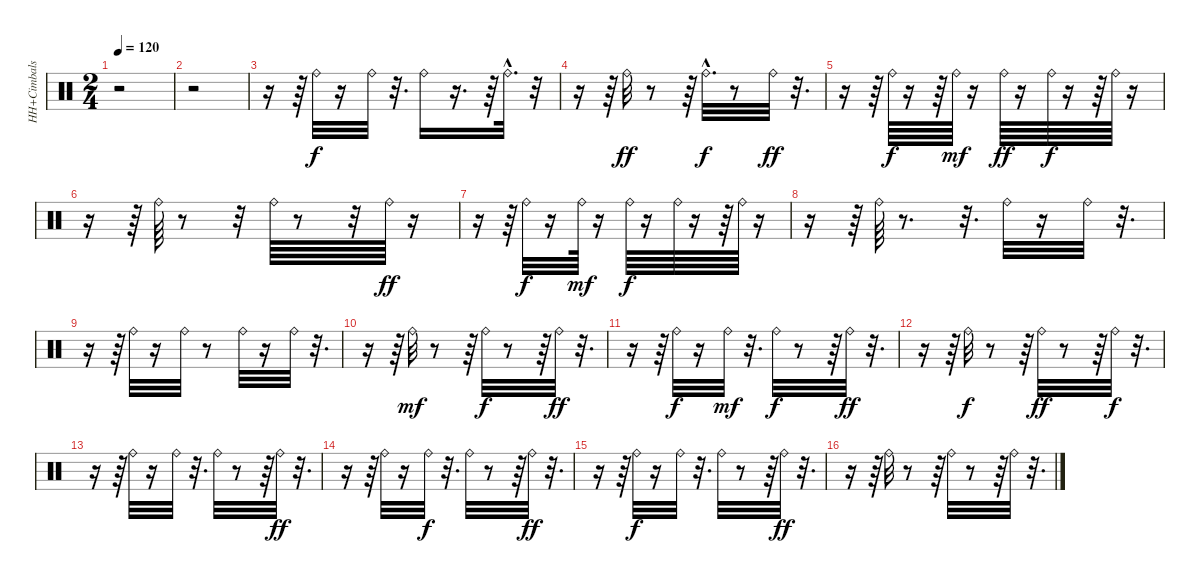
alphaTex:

\track ("HH+Cimbals" "HH+Cimbals") {instrument percussion}
\staff {score}
\articulation defaults
\ts (2 4)
\tempo 120
\clef neutral
\ks c
r.2{dy fff} |
r.2 |
r.16 r.64 "Ride (bell)".32{dy f} r.16 "Ride (bell)".32 r.32{d} "Ride (bell)".16 r.16{d} r.64 "Ride (bell)"{hac}.32{d} r.32 |
r.16 r.64 "Ride (bell)".32{dy ff} r.8 r.64 "Ride (bell)"{hac}.32{d dy f} r.8 "Ride (bell)".32{dy ff} r.32{d} |
r.16 r.64 "Ride (bell)".64{dy f} r.16 r.64 "Ride (bell)".64{dy mf} r.16 "Ride (bell)".64{dy ff} r.16 "Ride (bell)".64{dy f} r.16 r.64 "Ride (bell)".64 r.16 |
r.16 r.64 "Ride (bell)".64 r.8 r.32 "Ride (bell)".64 r.8 r.32 "Ride (bell)".64{dy ff} r.16 |
r.16 r.64 "Ride (bell)".32{dy f} r.16 "Ride (bell)".64{dy mf} r.16 "Ride (bell)".64{dy f} r.16 "Ride (bell)".64 r.16 r.64 "Ride (bell)".64 r.16 |
r.16 r.64 "Ride (bell)".64 r.8{d} r.32{d} "Ride (bell)".32 r.16 "Ride (bell)".32 r.32{d} |
r.16 r.64 "Ride (bell)".32 r.16 "Ride (bell)".32 r.8 "Ride (bell)".32 r.16 "Ride (bell)".32 r.32{d} |
r.16 r.64 "Ride (bell)".32{dy mf} r.8 r.64 "Ride (bell)".32{dy f} r.8 r.64 "Ride (bell)".32{dy ff} r.32{d} |
r.16 r.64 "Ride (bell)".32{dy f} r.16 "Ride (bell)".32{dy mf} r.32{d} "Ride (bell)".32{dy f} r.8 r.64 "Ride (bell)".32{dy ff} r.32{d} |
r.16 r.64 "Ride (bell)".32{dy f} r.8 r.64 "Ride (bell)".32{dy ff} r.8 r.64 "Ride (bell)".32{dy f} r.32{d} |
r.16 r.64 "Ride (bell)".32 r.16 "Ride (bell)".32 r.32{d} "Ride (bell)".32 r.8 r.64 "Ride (bell)".32{dy ff} r.32{d} |
r.16 r.64 "Ride (bell)".32 r.16 "Ride (bell)".32{dy f} r.32{d} "Ride (bell)".32 r.8 r.64 "Ride (bell)".32{dy ff} r.32{d} |
r.16 r.64 "Ride (bell)".32{dy f} r.16 "Ride (bell)".32 r.32{d} "Ride (bell)".32 r.8 r.64 "Ride (bell)".32{dy ff} r.32{d} |
r.16 r.64 "Ride (bell)".32 r.8 r.64 "Ride (bell)".32 r.8 r.64 "Ride (bell)".32 r.32{d}
